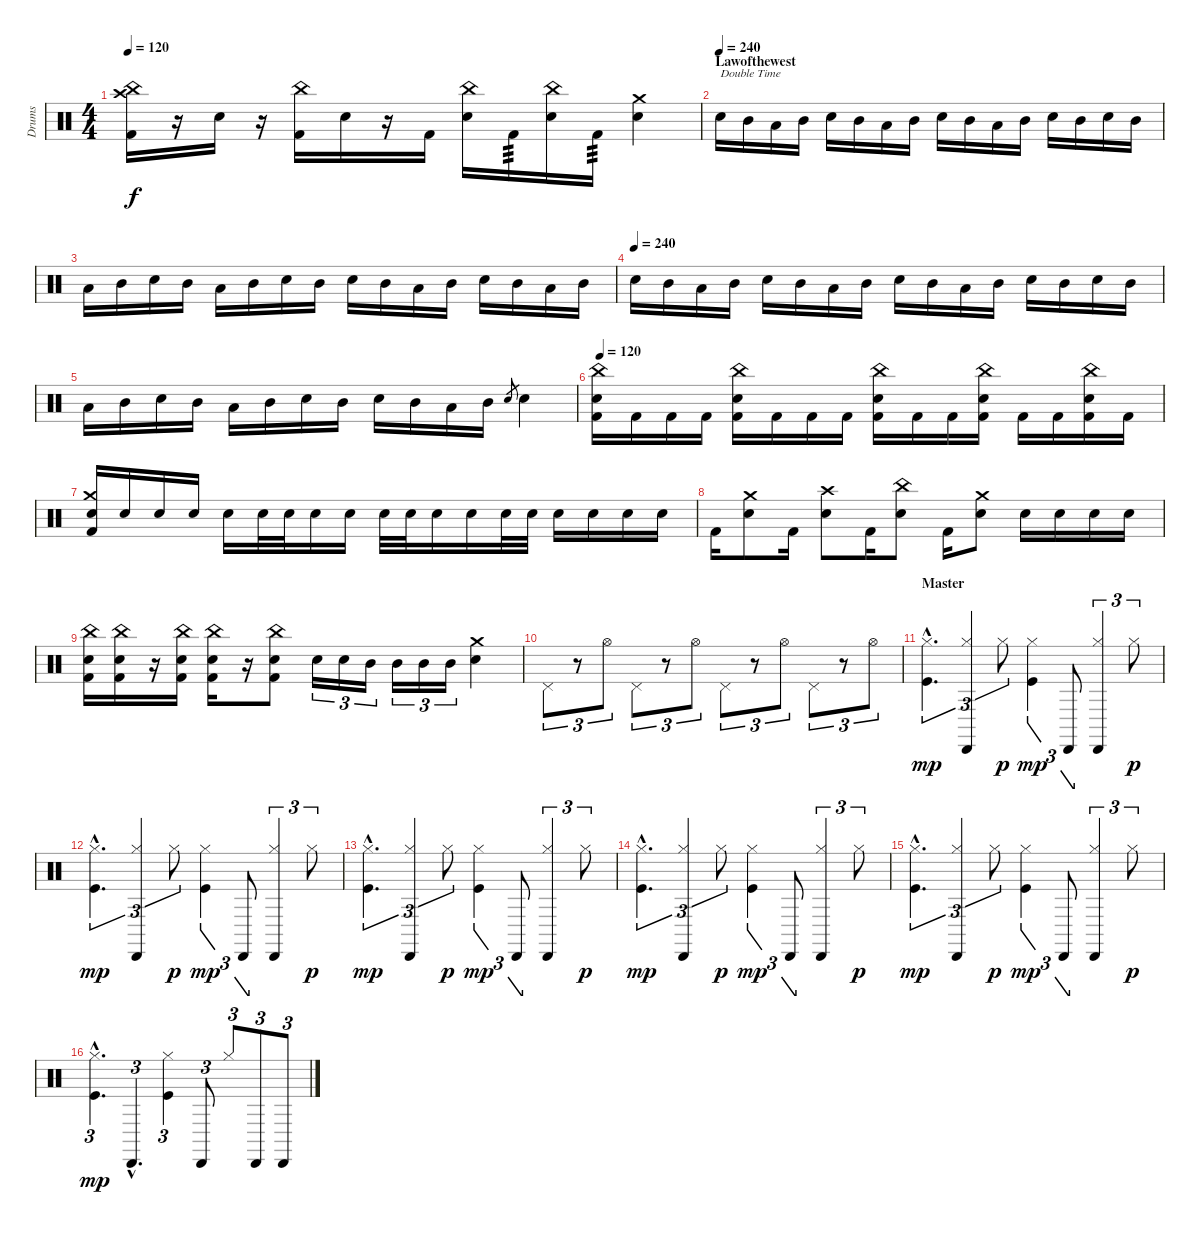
\track ("Drums" "Drums") {instrument percussion}
\staff {score}
\articulation defaults
\ts (4 4)
\tempo 120
\clef neutral
\ks c
("China (hit)" "Crash high (hit)" "Kick (hit) 2").16{dy f} r.16 "Electric Snare (hit)".16 r.16 ("China (hit)" "Kick (hit) 2").16 "Electric Snare (hit)".16 r.16 "Kick (hit) 2".16 ("China (hit)" "Electric Snare (hit)").16 "Kick (hit) 2".16{tp 3} ("China (hit)" "Electric Snare (hit)").16 "Kick (hit) 2".16{tp 3} ("Crash medium (hit)" "Electric Snare (hit)").4 |
\section ("" "Lawofthewest")
\tempo (240)
"Snare (hit) 2".16{txt "Double Time"} "Mid Tom (hit)".16 "Low Tom (hit)".16 "Mid Tom (hit)".16 "Snare (hit) 2".16 "Mid Tom (hit)".16 "Low Tom (hit)".16 "Mid Tom (hit)".16 "Snare (hit) 2".16 "Mid Tom (hit)".16 "Low Tom (hit)".16 "Mid Tom (hit)".16 "Snare (hit) 2".16 "Mid Tom (hit)".16 "Snare (hit) 2".16 "Mid Tom (hit)".16 |
"Low Tom (hit)".16 "Mid Tom (hit)".16 "Snare (hit) 2".16 "Mid Tom (hit)".16 "Low Tom (hit)".16 "Mid Tom (hit)".16 "Snare (hit) 2".16 "Mid Tom (hit)".16 "Snare (hit) 2".16 "Mid Tom (hit)".16 "Low Tom (hit)".16 "Mid Tom (hit)".16 "Snare (hit) 2".16 "Mid Tom (hit)".16 "Low Tom (hit)".16 "Mid Tom (hit)".16 |
\tempo (240)
"Snare (hit) 2".16 "Mid Tom (hit)".16 "Low Tom (hit)".16 "Mid Tom (hit)".16 "Snare (hit) 2".16 "Mid Tom (hit)".16 "Low Tom (hit)".16 "Mid Tom (hit)".16 "Snare (hit) 2".16 "Mid Tom (hit)".16 "Low Tom (hit)".16 "Mid Tom (hit)".16 "Snare (hit) 2".16 "Mid Tom (hit)".16 "Snare (hit) 2".16 "Mid Tom (hit)".16 |
"Low Tom (hit)".16 "Mid Tom (hit)".16 "Snare (hit) 2".16 "Mid Tom (hit)".16 "Low Tom (hit)".16 "Mid Tom (hit)".16 "Snare (hit) 2".16 "Mid Tom (hit)".16 "Snare (hit) 2".16 "Mid Tom (hit)".16 "Low Tom (hit)".16 "Mid Tom (hit)".16 "Snare (hit) 2".8{gr} "Snare (hit) 2".4 |
\tempo 120
("China (hit)" "Snare (hit) 2" "Kick (hit) 2").16 "Kick (hit) 2".16 "Kick (hit) 2".16 "Kick (hit) 2".16 ("China (hit)" "Snare (hit) 2" "Kick (hit) 2").16 "Kick (hit) 2".16 "Kick (hit) 2".16 "Kick (hit) 2".16 ("China (hit)" "Snare (hit) 2" "Kick (hit) 2").16 "Kick (hit) 2".16 "Kick (hit) 2".16 ("China (hit)" "Snare (hit) 2" "Kick (hit) 2").16 "Kick (hit) 2".16 "Kick (hit) 2".16 ("China (hit)" "Snare (hit) 2" "Kick (hit) 2").16 "Kick (hit) 2".16 |
("Crash medium (hit)" "Snare (hit) 2" "Kick (hit) 2").16 "Snare (hit) 2".16 "Snare (hit) 2".16 "Snare (hit) 2".16 "Snare (hit) 2".16 "Snare (hit) 2".32 "Snare (hit) 2".32 "Snare (hit) 2".16 "Snare (hit) 2".16 "Snare (hit) 2".32 "Snare (hit) 2".32 "Snare (hit) 2".16 "Snare (hit) 2".16 "Snare (hit) 2".32 "Snare (hit) 2".32 "Snare (hit) 2".16 "Snare (hit) 2".16 "Snare (hit) 2".16 "Snare (hit) 2".16 |
"Kick (hit) 2".16 ("Crash medium (hit)" "Snare (hit) 2").8 "Kick (hit) 2".16 ("Crash high (hit)" "Snare (hit) 2").8 "Kick (hit) 2".16 ("China (hit)" "Snare (hit) 2").8 "Kick (hit) 2".16 ("Crash medium (hit)" "Snare (hit) 2").8 "Snare (hit) 2".16 "Snare (hit) 2".16 "Snare (hit) 2".16 "Snare (hit) 2".16 |
("China (hit)" "Snare (hit) 2" "Kick (hit) 2").16 ("China (hit)" "Snare (hit) 2" "Kick (hit) 2").16 r.16 ("China (hit)" "Snare (hit) 2" "Kick (hit) 2").16 ("China (hit)" "Snare (hit) 2" "Kick (hit) 2").16 r.16 ("China (hit)" "Snare (hit) 2" "Kick (hit) 2").8 "Snare (hit) 2".16{tu (3 2)} "Snare (hit) 2".16{tu (3 2)} "Mid Tom (hit)".16{tu (3 2)} "Mid Tom (hit)".16{tu (3 2)} "Mid Tom (hit)".16{tu (3 2)} "Mid Tom (hit)".16{tu (3 2)} ("Crash medium (hit)" "Snare (hit) 2").4 |
"Pedal Hi-Hat (hit)".8{tu (3 2)} r.8{tu (3 2)} "Hi-Hat (open)".8{tu (3 2)} "Pedal Hi-Hat (hit)".8{tu (3 2)} r.8{tu (3 2)} "Hi-Hat (open)".8{tu (3 2)} "Pedal Hi-Hat (hit)".8{tu (3 2)} r.8{tu (3 2)} "Hi-Hat (open)".8{tu (3 2)} "Pedal Hi-Hat (hit)".8{tu (3 2)} r.8{tu (3 2)} "Hi-Hat (open)".8{tu (3 2)} |
\section ("" "Master")
("Hi-Hat (closed)"{hac} "Kick (hit)"{hac}).4{d tu (3 2) dy mp} ("Hi-Hat (closed)" "Cabasa (hit)").4{tu (3 2)} "Hi-Hat (closed)".8{tu (3 2) dy p} ("Hi-Hat (closed)" "Kick (hit)").4{tu (3 2) dy mp} "Cabasa (hit)".8{tu (3 2)} ("Hi-Hat (closed)" "Cabasa (hit)").4{tu (3 2)} "Hi-Hat (closed)".8{tu (3 2) dy p} |
("Hi-Hat (closed)"{hac} "Kick (hit)"{hac}).4{d tu (3 2) dy mp} ("Hi-Hat (closed)" "Cabasa (hit)").4{tu (3 2)} "Hi-Hat (closed)".8{tu (3 2) dy p} ("Hi-Hat (closed)" "Kick (hit)").4{tu (3 2) dy mp} "Cabasa (hit)".8{tu (3 2)} ("Hi-Hat (closed)" "Cabasa (hit)").4{tu (3 2)} "Hi-Hat (closed)".8{tu (3 2) dy p} |
("Hi-Hat (closed)"{hac} "Kick (hit)"{hac}).4{d tu (3 2) dy mp} ("Hi-Hat (closed)" "Cabasa (hit)").4{tu (3 2)} "Hi-Hat (closed)".8{tu (3 2) dy p} ("Hi-Hat (closed)" "Kick (hit)").4{tu (3 2) dy mp} "Cabasa (hit)".8{tu (3 2)} ("Hi-Hat (closed)" "Cabasa (hit)").4{tu (3 2)} "Hi-Hat (closed)".8{tu (3 2) dy p} |
("Hi-Hat (closed)"{hac} "Kick (hit)"{hac}).4{d tu (3 2) dy mp} ("Hi-Hat (closed)" "Cabasa (hit)").4{tu (3 2)} "Hi-Hat (closed)".8{tu (3 2) dy p} ("Hi-Hat (closed)" "Kick (hit)").4{tu (3 2) dy mp} "Cabasa (hit)".8{tu (3 2)} ("Hi-Hat (closed)" "Cabasa (hit)").4{tu (3 2)} "Hi-Hat (closed)".8{tu (3 2) dy p} |
("Hi-Hat (closed)"{hac} "Kick (hit)"{hac}).4{d tu (3 2) dy mp} ("Hi-Hat (closed)" "Cabasa (hit)").4{tu (3 2)} "Hi-Hat (closed)".8{tu (3 2) dy p} ("Hi-Hat (closed)" "Kick (hit)").4{tu (3 2) dy mp} "Cabasa (hit)".8{tu (3 2)} ("Hi-Hat (closed)" "Cabasa (hit)").4{tu (3 2)} "Hi-Hat (closed)".8{tu (3 2) dy p} |
("Hi-Hat (closed)"{hac} "Kick (hit)"{hac}).4{d tu (3 2) dy mp} "Cabasa (hit)"{hac}.4{d tu (3 2)} ("Hi-Hat (closed)" "Kick (hit)").4{tu (3 2)} "Cabasa (hit)".8{tu (3 2)} "Hi-Hat (closed)".8{tu (3 2)} "Cabasa (hit)".8{tu (3 2)} "Cabasa (hit)".8{tu (3 2)}
